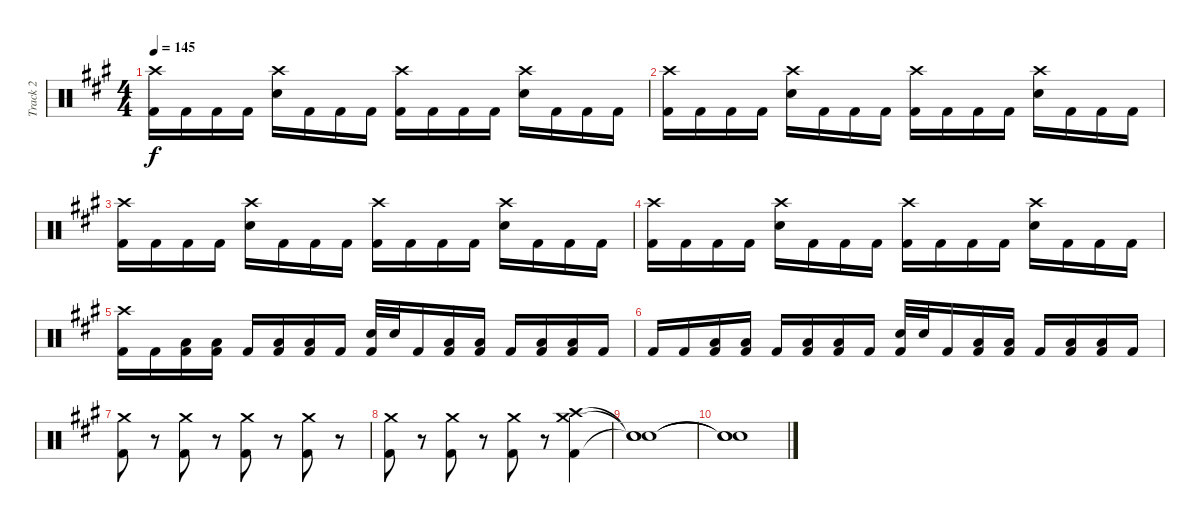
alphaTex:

\track ("Track 2" "Track 2") {instrument percussion}
\staff {score}
\articulation defaults
\ts (4 4)
\tempo 145
\clef neutral
\ks a
("Crash high (hit)" "Kick (hit) 2").16{dy f} "Kick (hit) 2".16 "Kick (hit) 2".16 "Kick (hit) 2".16 ("Crash high (hit)" "Snare (hit) 2").16 "Kick (hit) 2".16 "Kick (hit) 2".16 "Kick (hit) 2".16 ("Crash high (hit)" "Kick (hit) 2").16 "Kick (hit) 2".16 "Kick (hit) 2".16 "Kick (hit) 2".16 ("Crash high (hit)" "Snare (hit) 2").16 "Kick (hit) 2".16 "Kick (hit) 2".16 "Kick (hit) 2".16 |
("Crash high (hit)" "Kick (hit) 2").16 "Kick (hit) 2".16 "Kick (hit) 2".16 "Kick (hit) 2".16 ("Crash high (hit)" "Snare (hit) 2").16 "Kick (hit) 2".16 "Kick (hit) 2".16 "Kick (hit) 2".16 ("Crash high (hit)" "Kick (hit) 2").16 "Kick (hit) 2".16 "Kick (hit) 2".16 "Kick (hit) 2".16 ("Crash high (hit)" "Snare (hit) 2").16 "Kick (hit) 2".16 "Kick (hit) 2".16 "Kick (hit) 2".16 |
("Crash high (hit)" "Kick (hit) 2").16 "Kick (hit) 2".16 "Kick (hit) 2".16 "Kick (hit) 2".16 ("Crash high (hit)" "Snare (hit) 2").16 "Kick (hit) 2".16 "Kick (hit) 2".16 "Kick (hit) 2".16 ("Crash high (hit)" "Kick (hit) 2").16 "Kick (hit) 2".16 "Kick (hit) 2".16 "Kick (hit) 2".16 ("Crash high (hit)" "Snare (hit) 2").16 "Kick (hit) 2".16 "Kick (hit) 2".16 "Kick (hit) 2".16 |
("Crash high (hit)" "Kick (hit) 2").16 "Kick (hit) 2".16 "Kick (hit) 2".16 "Kick (hit) 2".16 ("Crash high (hit)" "Snare (hit) 2").16 "Kick (hit) 2".16 "Kick (hit) 2".16 "Kick (hit) 2".16 ("Crash high (hit)" "Kick (hit) 2").16 "Kick (hit) 2".16 "Kick (hit) 2".16 "Kick (hit) 2".16 ("Crash high (hit)" "Snare (hit) 2").16 "Kick (hit) 2".16 "Kick (hit) 2".16 "Kick (hit) 2".16 |
("Crash high (hit)" "Kick (hit) 2").16 "Kick (hit) 2".16 ("Low Floor Tom (hit)" "Kick (hit) 2").16 ("Low Floor Tom (hit)" "Kick (hit) 2").16 "Kick (hit) 2".16 ("Low Floor Tom (hit)" "Kick (hit) 2").16 ("Low Floor Tom (hit)" "Kick (hit) 2").16 "Kick (hit) 2".16 ("Snare (hit) 2" "Kick (hit) 2").32 "Snare (hit) 2".32 "Kick (hit) 2".16 ("Low Floor Tom (hit)" "Kick (hit) 2").16 ("Low Floor Tom (hit)" "Kick (hit) 2").16 "Kick (hit) 2".16 ("Low Floor Tom (hit)" "Kick (hit) 2").16 ("Low Floor Tom (hit)" "Kick (hit) 2").16 "Kick (hit) 2".16 |
"Kick (hit) 2".16 "Kick (hit) 2".16 ("Low Floor Tom (hit)" "Kick (hit) 2").16 ("Low Floor Tom (hit)" "Kick (hit) 2").16 "Kick (hit) 2".16 ("Low Floor Tom (hit)" "Kick (hit) 2").16 ("Low Floor Tom (hit)" "Kick (hit) 2").16 "Kick (hit) 2".16 ("Snare (hit) 2" "Kick (hit) 2").32 "Snare (hit) 2".32 "Kick (hit) 2".16 ("Low Floor Tom (hit)" "Kick (hit) 2").16 ("Low Floor Tom (hit)" "Kick (hit) 2").16 "Kick (hit) 2".16 ("Low Floor Tom (hit)" "Kick (hit) 2").16 ("Low Floor Tom (hit)" "Kick (hit) 2").16 "Kick (hit) 2".16 |
("Crash medium (hit)" "Kick (hit) 2").8 r.8 ("Crash medium (hit)" "Kick (hit) 2").8 r.8 ("Crash medium (hit)" "Kick (hit) 2").8 r.8 ("Crash medium (hit)" "Kick (hit) 2").8 r.8 |
("Crash medium (hit)" "Kick (hit) 2").8 r.8 ("Crash medium (hit)" "Kick (hit) 2").8 r.8 ("Crash medium (hit)" "Kick (hit) 2").8 r.8 ("Crash high (hit)" "Crash medium (hit)" "Kick (hit) 2").4 |
("Snare (hit)"{t} "Snare (hit)"{t} "Snare (hit)"{t}).1 |
("Snare (hit)"{t} "Snare (hit)"{t} "Snare (hit)"{t}).1
